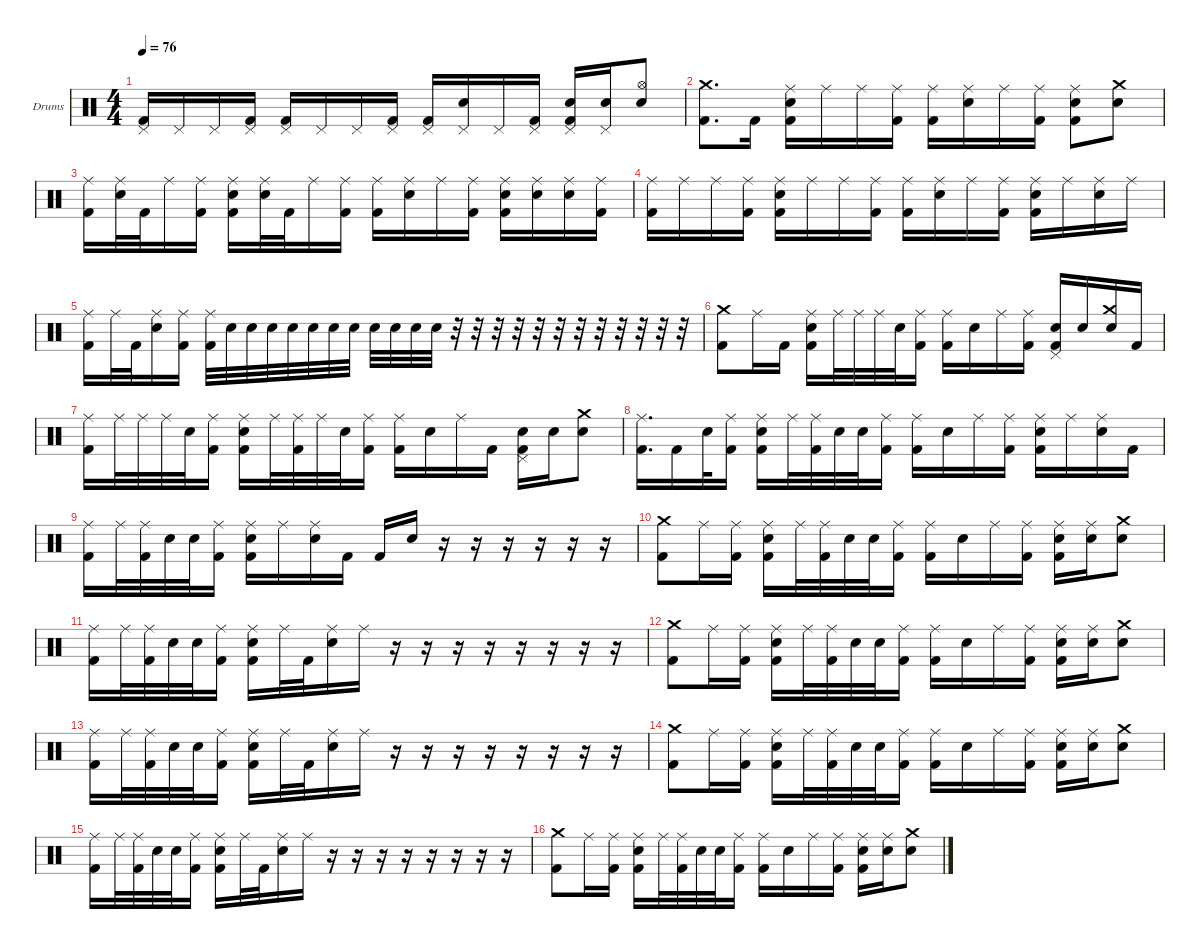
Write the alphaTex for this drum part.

\hideDynamics
\bracketExtendMode nobrackets
\firstSystemTrackNameOrientation horizontal
\otherSystemsTrackNameOrientation horizontal
\track ("Drumkit" "Drums") {instrument percussion}
\staff {score}
\articulation defaults
\ts (4 4)
\tempo 76
\clef neutral
\ks c
("Kick (hit) 2" "Pedal Hi-Hat (hit)").16{dy f beam Up} "Pedal Hi-Hat (hit)".16{beam Up} "Pedal Hi-Hat (hit)".16{beam Up} ("Pedal Hi-Hat (hit)" "Kick (hit) 2").16{beam Up} ("Pedal Hi-Hat (hit)" "Kick (hit) 2").16{beam Up} "Pedal Hi-Hat (hit)".16{beam Up} "Pedal Hi-Hat (hit)".16{beam Up} ("Pedal Hi-Hat (hit)" "Kick (hit) 2").16{beam Up} ("Pedal Hi-Hat (hit)" "Kick (hit) 2").16{beam Up} ("Pedal Hi-Hat (hit)" "Snare (hit) 2").16{beam Up} "Pedal Hi-Hat (hit)".16{beam Up} ("Pedal Hi-Hat (hit)" "Kick (hit) 2").16{beam Up} ("Pedal Hi-Hat (hit)" "Kick (hit) 2" "Snare (hit) 2").16{beam Up} ("Pedal Hi-Hat (hit)" "Snare (hit) 2").16{beam Up} ("Snare (hit) 2" "Hi-Hat (open)").8{beam Up} |
("Kick (hit) 2" "Crash medium (hit)").8{d beam Down} "Kick (hit) 2".16{beam Down} ("Kick (hit) 2" "Snare (hit) 2" "Ride (middle)").16{beam Down} "Ride (middle)".16{beam Down} "Ride (middle)".16{beam Down} ("Kick (hit) 2" "Ride (middle)").16{beam Down} ("Kick (hit) 2" "Ride (middle)").16{beam Down} ("Snare (hit) 2" "Ride (middle)").16{beam Down} "Ride (middle)".16{beam Down} ("Kick (hit) 2" "Ride (middle)").16{beam Down} ("Kick (hit) 2" "Snare (hit) 2" "Ride (middle)").8{beam Down} ("Snare (hit) 2" "Crash medium (hit)").8{beam Down} |
("Kick (hit) 2" "Ride (middle)").16{beam Down} ("Snare (hit) 2" "Ride (middle)").32{beam Down} "Kick (hit) 2".32{beam Down} "Ride (middle)".16{beam Down} ("Kick (hit) 2" "Ride (middle)").16{beam Down} ("Kick (hit) 2" "Snare (hit) 2" "Ride (middle)").16{beam Down} ("Snare (hit) 2" "Ride (middle)").32{beam Down} "Kick (hit) 2".32{beam Down} "Ride (middle)".16{beam Down} ("Kick (hit) 2" "Ride (middle)").16{beam Down} ("Kick (hit) 2" "Ride (middle)").16{beam Down} ("Snare (hit) 2" "Ride (middle)").16{beam Down} "Ride (middle)".16{beam Down} ("Kick (hit) 2" "Ride (middle)").16{beam Down} ("Kick (hit) 2" "Snare (hit) 2" "Ride (middle)").16{beam Down} ("Snare (hit) 2" "Ride (middle)").16{beam Down} ("Snare (hit) 2" "Ride (middle)").16{beam Down} ("Kick (hit) 2" "Ride (middle)").16{beam Down} |
("Kick (hit) 2" "Ride (middle)").16{beam Down} "Ride (middle)".16{beam Down} "Ride (middle)".16{beam Down} ("Kick (hit) 2" "Ride (middle)").16{beam Down} ("Kick (hit) 2" "Snare (hit) 2" "Ride (middle)").16{beam Down} "Ride (middle)".16{beam Down} "Ride (middle)".16{beam Down} ("Kick (hit) 2" "Ride (middle)").16{beam Down} ("Kick (hit) 2" "Ride (middle)").16{beam Down} ("Snare (hit) 2" "Ride (middle)").16{beam Down} "Ride (middle)".16{beam Down} ("Kick (hit) 2" "Ride (middle)").16{beam Down} ("Kick (hit) 2" "Snare (hit) 2" "Ride (middle)").16{beam Down} "Ride (middle)".16{beam Down} ("Snare (hit) 2" "Ride (middle)").16{beam Down} "Ride (middle)".16{beam Down} |
("Ride (middle)" "Kick (hit) 2").16{beam Down} "Ride (middle)".32{beam Down} "Kick (hit) 2".32{beam Down} ("Ride (middle)" "Snare (hit) 2").16{beam Down} ("Ride (middle)" "Kick (hit) 2").16{beam Down} ("Kick (hit) 2" "Ride (middle)").32{beam Down} "Snare (hit) 2".32{beam Down} "Snare (hit) 2".32{beam Down} "Snare (hit) 2".32{beam Down} "Snare (hit) 2".32{beam Down} "Snare (hit) 2".32{beam Down} "Snare (hit) 2".32{beam Down} "Snare (hit) 2".32{beam Down} "Snare (hit) 2".32{beam Down} "Snare (hit) 2".32{beam Down} "Snare (hit) 2".32{beam Down} "Snare (hit) 2".32{beam Down} r.32{beam Down} r.32{beam Down} r.32{beam Down} r.32{beam Down} r.32{beam Down} r.32{beam Down} r.32{beam Down} r.32{beam Down} r.32{beam Down} r.32{beam Down} r.32{beam Down} r.32{beam Down} |
("Kick (hit) 2" "Crash medium (hit)").8{beam Down} "Ride (middle)".16{beam Down} "Kick (hit) 2".16{beam Down} ("Kick (hit) 2" "Ride (middle)" "Snare (hit) 2").16{beam Down} "Ride (middle)".32{beam Down} "Ride (middle)".32{beam Down} "Ride (middle)".32{beam Down} "Snare (hit) 2".32{beam Down} ("Kick (hit) 2" "Ride (middle)").16{beam Down} ("Kick (hit) 2" "Ride (middle)").16{beam Down} "Snare (hit) 2".16{beam Down} "Ride (middle)".16{beam Down} ("Kick (hit) 2" "Ride (middle)").16{beam Down} ("Kick (hit) 2" "Snare (hit) 2" "Pedal Hi-Hat (hit)").16{beam Up} "Snare (hit) 2".16{beam Up} ("Snare (hit) 2" "Crash medium (hit)").16{beam Up} "Kick (hit) 2".16{beam Up} |
("Kick (hit) 2" "Ride (middle)").16{beam Down} "Ride (middle)".32{beam Down} "Ride (middle)".32{beam Down} "Ride (middle)".32{beam Down} "Snare (hit) 2".32{beam Down} ("Kick (hit) 2" "Ride (middle)").16{beam Down} ("Kick (hit) 2" "Snare (hit) 2" "Ride (middle)").16{beam Down} "Ride (middle)".32{beam Down} ("Kick (hit) 2" "Ride (middle)").32{beam Down} "Ride (middle)".32{beam Down} "Snare (hit) 2".32{beam Down} ("Kick (hit) 2" "Ride (middle)").16{beam Down} ("Kick (hit) 2" "Ride (middle)").16{beam Down} "Snare (hit) 2".16{beam Down} "Ride (middle)".16{beam Down} "Kick (hit) 2".16{beam Down} ("Kick (hit) 2" "Snare (hit) 2" "Pedal Hi-Hat (hit)").16{beam Down} "Snare (hit) 2".16{beam Down} ("Snare (hit) 2" "Crash medium (hit)").8{beam Down} |
("Kick (hit) 2" "Ride (middle)").16{d beam Down} "Kick (hit) 2".16{beam Down} "Snare (hit) 2".32{beam Down} ("Kick (hit) 2" "Ride (middle)").16{beam Down} ("Snare (hit) 2" "Kick (hit) 2" "Ride (middle)").16{beam Down} "Ride (middle)".32{beam Down} ("Kick (hit) 2" "Ride (middle)").32{beam Down} "Snare (hit) 2".32{beam Down} "Snare (hit) 2".32{beam Down} ("Kick (hit) 2" "Ride (middle)").16{beam Down} ("Kick (hit) 2" "Ride (middle)").16{beam Down} "Snare (hit) 2".16{beam Down} "Ride (middle)".16{beam Down} ("Kick (hit) 2" "Ride (middle)").16{beam Down} ("Kick (hit) 2" "Ride (middle)" "Snare (hit) 2").16{beam Down} "Ride (middle)".16{beam Down} ("Ride (middle)" "Snare (hit) 2").16{beam Down} "Kick (hit) 2".16{beam Down} |
("Ride (middle)" "Kick (hit) 2").16{beam Down} "Ride (middle)".32{beam Down} ("Kick (hit) 2" "Ride (middle)").32{beam Down} "Snare (hit) 2".32{beam Down} "Snare (hit) 2".32{beam Down} ("Kick (hit) 2" "Ride (middle)").16{beam Down} ("Snare (hit) 2" "Ride (middle)" "Kick (hit) 2").16{beam Down} "Ride (middle)".16{beam Down} ("Ride (middle)" "Snare (hit) 2").16{beam Down} "Kick (hit) 2".16{beam Down} "Kick (hit) 2".16{beam Up} "Snare (hit) 2".16{beam Up} r.16{beam Up} r.16{beam Up} r.16{beam Up} r.16{beam Up} r.16{beam Up} r.16{beam Up} |
("Kick (hit) 2" "Crash medium (hit)").8{beam Down} "Ride (middle)".16{beam Down} ("Kick (hit) 2" "Ride (middle)").16{beam Down} ("Snare (hit) 2" "Kick (hit) 2" "Ride (middle)").16{beam Down} "Ride (middle)".32{beam Down} ("Kick (hit) 2" "Ride (middle)").32{beam Down} "Snare (hit) 2".32{beam Down} "Snare (hit) 2".32{beam Down} ("Kick (hit) 2" "Ride (middle)").16{beam Down} ("Kick (hit) 2" "Ride (middle)").16{beam Down} "Snare (hit) 2".16{beam Down} "Ride (middle)".16{beam Down} ("Kick (hit) 2" "Ride (middle)").16{beam Down} ("Kick (hit) 2" "Snare (hit) 2" "Ride (middle)").16{beam Down} ("Snare (hit) 2" "Ride (middle)").16{beam Down} ("Snare (hit) 2" "Crash medium (hit)").8{beam Down} |
("Kick (hit) 2" "Ride (middle)").16{beam Down} "Ride (middle)".32{beam Down} ("Kick (hit) 2" "Ride (middle)").32{beam Down} "Snare (hit) 2".32{beam Down} "Snare (hit) 2".32{beam Down} ("Kick (hit) 2" "Ride (middle)").16{beam Down} ("Ride (middle)" "Kick (hit) 2" "Snare (hit) 2").16{beam Down} "Ride (middle)".32{beam Down} "Kick (hit) 2".32{beam Down} ("Ride (middle)" "Snare (hit) 2").16{beam Down} "Ride (middle)".16{beam Down} r.16{beam Down} r.16{beam Down} r.16{beam Down} r.16{beam Down} r.16{beam Down} r.16{beam Down} r.16{beam Down} r.16{beam Down} |
("Crash medium (hit)" "Kick (hit) 2").8{beam Down} "Ride (middle)".16{beam Down} ("Kick (hit) 2" "Ride (middle)").16{beam Down} ("Snare (hit) 2" "Kick (hit) 2" "Ride (middle)").16{beam Down} "Ride (middle)".32{beam Down} ("Kick (hit) 2" "Ride (middle)").32{beam Down} "Snare (hit) 2".32{beam Down} "Snare (hit) 2".32{beam Down} ("Kick (hit) 2" "Ride (middle)").16{beam Down} ("Kick (hit) 2" "Ride (middle)").16{beam Down} "Snare (hit) 2".16{beam Down} "Ride (middle)".16{beam Down} ("Kick (hit) 2" "Ride (middle)").16{beam Down} ("Kick (hit) 2" "Snare (hit) 2" "Ride (middle)").16{beam Down} ("Snare (hit) 2" "Ride (middle)").16{beam Down} ("Snare (hit) 2" "Crash medium (hit)").8{beam Down} |
("Ride (middle)" "Kick (hit) 2").16{beam Down} "Ride (middle)".32{beam Down} ("Kick (hit) 2" "Ride (middle)").32{beam Down} "Snare (hit) 2".32{beam Down} "Snare (hit) 2".32{beam Down} ("Kick (hit) 2" "Ride (middle)").16{beam Down} ("Ride (middle)" "Kick (hit) 2" "Snare (hit) 2").16{beam Down} "Ride (middle)".32{beam Down} "Kick (hit) 2".32{beam Down} ("Ride (middle)" "Snare (hit) 2").16{beam Down} "Ride (middle)".16{beam Down} r.16{beam Down} r.16{beam Down} r.16{beam Down} r.16{beam Down} r.16{beam Down} r.16{beam Down} r.16{beam Down} r.16{beam Down} |
("Crash medium (hit)" "Kick (hit) 2").8{beam Down} "Ride (middle)".16{beam Down} ("Kick (hit) 2" "Ride (middle)").16{beam Down} ("Snare (hit) 2" "Kick (hit) 2" "Ride (middle)").16{beam Down} "Ride (middle)".32{beam Down} ("Kick (hit) 2" "Ride (middle)").32{beam Down} "Snare (hit) 2".32{beam Down} "Snare (hit) 2".32{beam Down} ("Kick (hit) 2" "Ride (middle)").16{beam Down} ("Kick (hit) 2" "Ride (middle)").16{beam Down} "Snare (hit) 2".16{beam Down} "Ride (middle)".16{beam Down} ("Kick (hit) 2" "Ride (middle)").16{beam Down} ("Kick (hit) 2" "Snare (hit) 2" "Ride (middle)").16{beam Down} ("Snare (hit) 2" "Ride (middle)").16{beam Down} ("Snare (hit) 2" "Crash medium (hit)").8{beam Down} |
("Ride (middle)" "Kick (hit) 2").16{beam Down} "Ride (middle)".32{beam Down} ("Kick (hit) 2" "Ride (middle)").32{beam Down} "Snare (hit) 2".32{beam Down} "Snare (hit) 2".32{beam Down} ("Kick (hit) 2" "Ride (middle)").16{beam Down} ("Ride (middle)" "Kick (hit) 2" "Snare (hit) 2").16{beam Down} "Ride (middle)".32{beam Down} "Kick (hit) 2".32{beam Down} ("Ride (middle)" "Snare (hit) 2").16{beam Down} "Ride (middle)".16{beam Down} r.16{beam Down} r.16{beam Down} r.16{beam Down} r.16{beam Down} r.16{beam Down} r.16{beam Down} r.16{beam Down} r.16{beam Down} |
("Crash medium (hit)" "Kick (hit) 2").8{beam Down} "Ride (middle)".16{beam Down} ("Kick (hit) 2" "Ride (middle)").16{beam Down} ("Snare (hit) 2" "Kick (hit) 2" "Ride (middle)").16{beam Down} "Ride (middle)".32{beam Down} ("Kick (hit) 2" "Ride (middle)").32{beam Down} "Snare (hit) 2".32{beam Down} "Snare (hit) 2".32{beam Down} ("Kick (hit) 2" "Ride (middle)").16{beam Down} ("Kick (hit) 2" "Ride (middle)").16{beam Down} "Snare (hit) 2".16{beam Down} "Ride (middle)".16{beam Down} ("Kick (hit) 2" "Ride (middle)").16{beam Down} ("Kick (hit) 2" "Snare (hit) 2" "Ride (middle)").16{beam Down} ("Snare (hit) 2" "Ride (middle)").16{beam Down} ("Snare (hit) 2" "Crash medium (hit)").8{beam Down}
